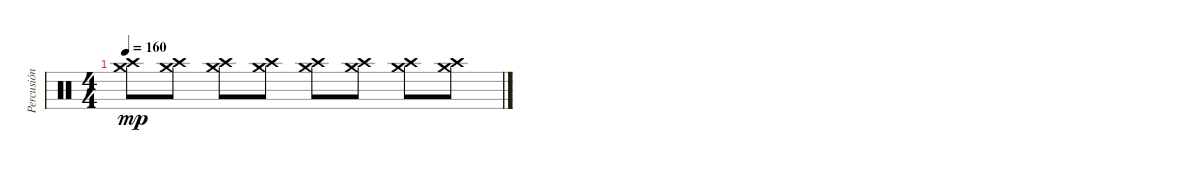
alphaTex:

\track ("Percusión" "Percusión") {instrument percussion}
\staff {score}
\articulation defaults
\ts (4 4)
\tempo 160
\clef neutral
\ks c
("Crash high (hit)" "Crash medium (hit)").8{dy mp balance 8} ("Crash high (hit)" "Crash medium (hit)").8 ("Crash high (hit)" "Crash medium (hit)").8 ("Crash high (hit)" "Crash medium (hit)").8 ("Crash high (hit)" "Crash medium (hit)").8 ("Crash high (hit)" "Crash medium (hit)").8 ("Crash high (hit)" "Crash medium (hit)").8 ("Crash high (hit)" "Crash medium (hit)").8
